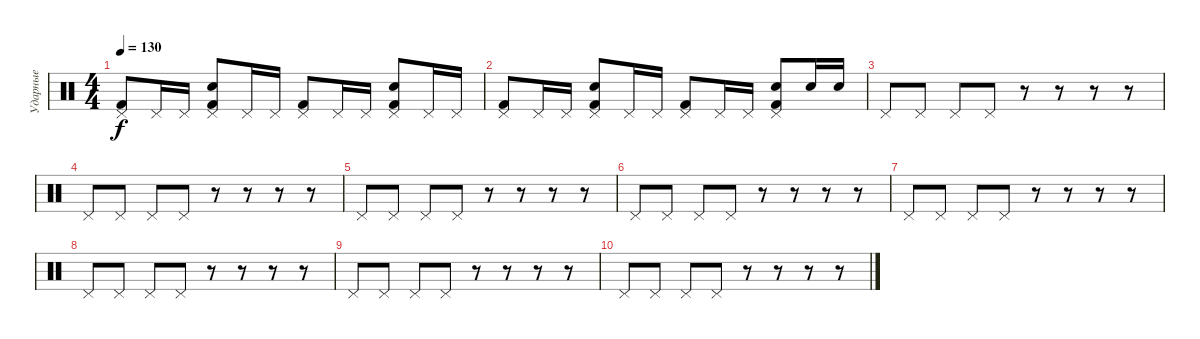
\track ("Ударные" "Ударные") {instrument percussion}
\staff {score}
\articulation defaults
\ts (4 4)
\tempo 130
\clef neutral
\ks c
("Pedal Hi-Hat (hit)" "Kick (hit) 2").8{dy f} "Pedal Hi-Hat (hit)".16 "Pedal Hi-Hat (hit)".16 ("Pedal Hi-Hat (hit)" "Electric Snare (hit)" "Kick (hit) 2").8 "Pedal Hi-Hat (hit)".16 "Pedal Hi-Hat (hit)".16 ("Pedal Hi-Hat (hit)" "Kick (hit) 2").8 "Pedal Hi-Hat (hit)".16 "Pedal Hi-Hat (hit)".16 ("Pedal Hi-Hat (hit)" "Electric Snare (hit)" "Kick (hit) 2").8 "Pedal Hi-Hat (hit)".16 "Pedal Hi-Hat (hit)".16 |
("Pedal Hi-Hat (hit)" "Kick (hit) 2").8 "Pedal Hi-Hat (hit)".16 "Pedal Hi-Hat (hit)".16 ("Pedal Hi-Hat (hit)" "Electric Snare (hit)" "Kick (hit) 2").8 "Pedal Hi-Hat (hit)".16 "Pedal Hi-Hat (hit)".16 ("Pedal Hi-Hat (hit)" "Kick (hit) 2").8 "Pedal Hi-Hat (hit)".16 "Pedal Hi-Hat (hit)".16 ("Pedal Hi-Hat (hit)" "Electric Snare (hit)" "Kick (hit) 2").8 "Electric Snare (hit)".16 "Electric Snare (hit)".16 |
"Pedal Hi-Hat (hit)".8 "Pedal Hi-Hat (hit)".8 "Pedal Hi-Hat (hit)".8 "Pedal Hi-Hat (hit)".8 r.8 r.8 r.8 r.8 |
"Pedal Hi-Hat (hit)".8 "Pedal Hi-Hat (hit)".8 "Pedal Hi-Hat (hit)".8 "Pedal Hi-Hat (hit)".8 r.8 r.8 r.8 r.8 |
"Pedal Hi-Hat (hit)".8 "Pedal Hi-Hat (hit)".8 "Pedal Hi-Hat (hit)".8 "Pedal Hi-Hat (hit)".8 r.8 r.8 r.8 r.8 |
"Pedal Hi-Hat (hit)".8 "Pedal Hi-Hat (hit)".8 "Pedal Hi-Hat (hit)".8 "Pedal Hi-Hat (hit)".8 r.8 r.8 r.8 r.8 |
"Pedal Hi-Hat (hit)".8 "Pedal Hi-Hat (hit)".8 "Pedal Hi-Hat (hit)".8 "Pedal Hi-Hat (hit)".8 r.8 r.8 r.8 r.8 |
"Pedal Hi-Hat (hit)".8 "Pedal Hi-Hat (hit)".8 "Pedal Hi-Hat (hit)".8 "Pedal Hi-Hat (hit)".8 r.8 r.8 r.8 r.8 |
"Pedal Hi-Hat (hit)".8 "Pedal Hi-Hat (hit)".8 "Pedal Hi-Hat (hit)".8 "Pedal Hi-Hat (hit)".8 r.8 r.8 r.8 r.8 |
"Pedal Hi-Hat (hit)".8 "Pedal Hi-Hat (hit)".8 "Pedal Hi-Hat (hit)".8 "Pedal Hi-Hat (hit)".8 r.8 r.8 r.8 r.8
